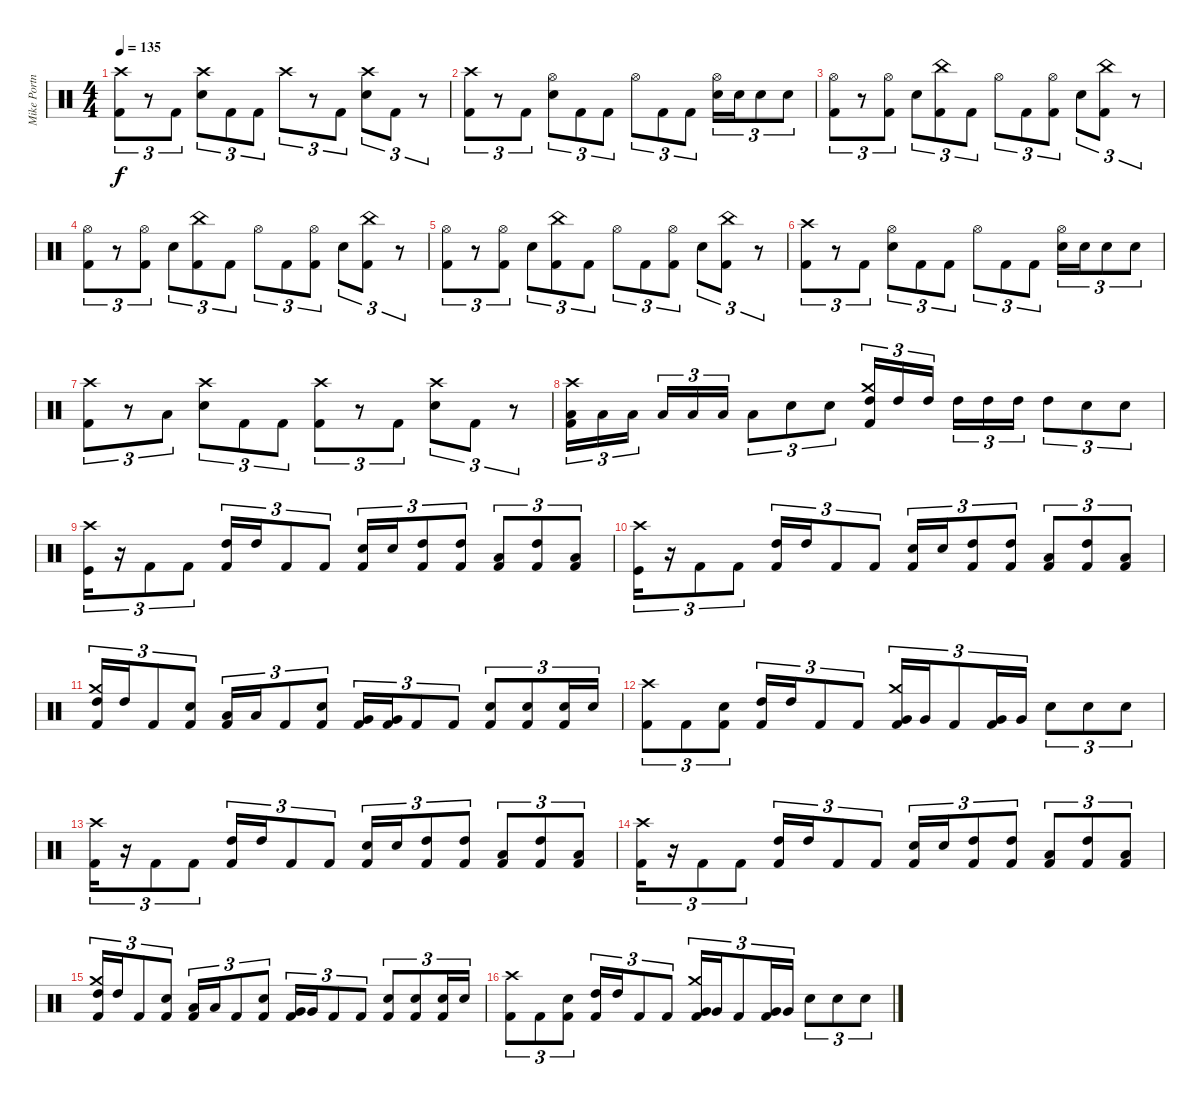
\track ("Mike Portnoy" "Mike Portn") {instrument percussion}
\staff {score}
\articulation defaults
\ts (4 4)
\tempo 135
\clef neutral
\ks c
("Crash high (hit)" "Kick (hit) 2").8{tu (3 2) dy f} r.8{tu (3 2)} "Kick (hit) 2".8{tu (3 2)} ("Crash high (hit)" "Snare (hit) 2").8{tu (3 2)} "Kick (hit) 2".8{tu (3 2)} "Kick (hit) 2".8{tu (3 2)} "Crash high (hit)".8{tu (3 2)} r.8{tu (3 2)} "Kick (hit) 2".8{tu (3 2)} ("Crash high (hit)" "Snare (hit) 2").8{tu (3 2)} "Kick (hit) 2".8{tu (3 2)} r.8{tu (3 2)} |
("Crash high (hit)" "Kick (hit) 2").8{tu (3 2)} r.8{tu (3 2)} "Kick (hit) 2".8{tu (3 2)} ("Hi-Hat (open)" "Snare (hit) 2").8{tu (3 2)} "Kick (hit) 2".8{tu (3 2)} "Kick (hit) 2".8{tu (3 2)} "Hi-Hat (open)".8{tu (3 2)} "Kick (hit) 2".8{tu (3 2)} "Kick (hit) 2".8{tu (3 2)} ("Hi-Hat (open)" "Snare (hit) 2").16{tu (3 2)} "Snare (hit) 2".16{tu (3 2)} "Snare (hit) 2".8{tu (3 2)} "Snare (hit) 2".8{tu (3 2)} |
("Hi-Hat (open)" "Kick (hit) 2").8{tu (3 2)} r.8{tu (3 2)} ("Hi-Hat (open)" "Kick (hit) 2").8{tu (3 2)} "Snare (hit) 2".8{tu (3 2)} ("China (hit)" "Kick (hit) 2").8{tu (3 2)} "Kick (hit) 2".8{tu (3 2)} "Hi-Hat (open)".8{tu (3 2)} "Kick (hit) 2".8{tu (3 2)} ("Hi-Hat (open)" "Kick (hit) 2").8{tu (3 2)} "Snare (hit) 2".8{tu (3 2)} ("China (hit)" "Kick (hit) 2").8{tu (3 2)} r.8{tu (3 2)} |
("Hi-Hat (open)" "Kick (hit) 2").8{tu (3 2)} r.8{tu (3 2)} ("Hi-Hat (open)" "Kick (hit) 2").8{tu (3 2)} "Snare (hit) 2".8{tu (3 2)} ("China (hit)" "Kick (hit) 2").8{tu (3 2)} "Kick (hit) 2".8{tu (3 2)} "Hi-Hat (open)".8{tu (3 2)} "Kick (hit) 2".8{tu (3 2)} ("Hi-Hat (open)" "Kick (hit) 2").8{tu (3 2)} "Snare (hit) 2".8{tu (3 2)} ("China (hit)" "Kick (hit) 2").8{tu (3 2)} r.8{tu (3 2)} |
("Hi-Hat (open)" "Kick (hit) 2").8{tu (3 2)} r.8{tu (3 2)} ("Hi-Hat (open)" "Kick (hit) 2").8{tu (3 2)} "Snare (hit) 2".8{tu (3 2)} ("China (hit)" "Kick (hit) 2").8{tu (3 2)} "Kick (hit) 2".8{tu (3 2)} "Hi-Hat (open)".8{tu (3 2)} "Kick (hit) 2".8{tu (3 2)} ("Hi-Hat (open)" "Kick (hit) 2").8{tu (3 2)} "Snare (hit) 2".8{tu (3 2)} ("China (hit)" "Kick (hit) 2").8{tu (3 2)} r.8{tu (3 2)} |
("Crash high (hit)" "Kick (hit) 2").8{tu (3 2)} r.8{tu (3 2)} "Kick (hit) 2".8{tu (3 2)} ("Hi-Hat (open)" "Snare (hit) 2").8{tu (3 2)} "Kick (hit) 2".8{tu (3 2)} "Kick (hit) 2".8{tu (3 2)} "Hi-Hat (open)".8{tu (3 2)} "Kick (hit) 2".8{tu (3 2)} "Kick (hit) 2".8{tu (3 2)} ("Hi-Hat (open)" "Snare (hit) 2").16{tu (3 2)} "Snare (hit) 2".16{tu (3 2)} "Snare (hit) 2".8{tu (3 2)} "Snare (hit) 2".8{tu (3 2)} |
("Crash high (hit)" "Kick (hit) 2").8{tu (3 2)} r.8{tu (3 2)} "Low Tom (hit)".8{tu (3 2)} ("Crash high (hit)" "Snare (hit) 2").8{tu (3 2)} "Kick (hit) 2".8{tu (3 2)} "Kick (hit) 2".8{tu (3 2)} ("Crash high (hit)" "Kick (hit) 2").8{tu (3 2)} r.8{tu (3 2)} "Kick (hit) 2".8{tu (3 2)} ("Crash high (hit)" "Snare (hit) 2").8{tu (3 2)} "Kick (hit) 2".8{tu (3 2)} r.8{tu (3 2)} |
("Crash high (hit)" "Low Tom (hit)" "Kick (hit) 2").16{tu (3 2)} "Low Tom (hit)".16{tu (3 2)} "Low Tom (hit)".16{tu (3 2)} "Low Tom (hit)".16{tu (3 2)} "Low Tom (hit)".16{tu (3 2)} "Low Tom (hit)".16{tu (3 2)} "Low Tom (hit)".8{tu (3 2)} "Snare (hit) 2".8{tu (3 2)} "Snare (hit) 2".8{tu (3 2)} ("Crash medium (hit)" "High Tom (hit)" "Kick (hit) 2").16{tu (3 2)} "High Tom (hit)".16{tu (3 2)} "High Tom (hit)".16{tu (3 2)} "High Tom (hit)".16{tu (3 2)} "High Tom (hit)".16{tu (3 2)} "High Tom (hit)".16{tu (3 2)} "High Tom (hit)".8{tu (3 2)} "Snare (hit) 2".8{tu (3 2)} "Snare (hit) 2".8{tu (3 2)} |
("Crash high (hit)" "Kick (hit)").16{tu (3 2)} r.16{tu (3 2)} "Kick (hit) 2".8{tu (3 2)} "Kick (hit) 2".8{tu (3 2)} ("High Tom (hit)" "Kick (hit) 2").16{tu (3 2)} "High Tom (hit)".16{tu (3 2)} "Kick (hit) 2".8{tu (3 2)} "Kick (hit) 2".8{tu (3 2)} ("Snare (hit) 2" "Kick (hit) 2").16{tu (3 2)} "Snare (hit) 2".16{tu (3 2)} ("High Tom (hit)" "Kick (hit) 2").8{tu (3 2)} ("High Tom (hit)" "Kick (hit) 2").8{tu (3 2)} ("Low Tom (hit)" "Kick (hit) 2").8{tu (3 2)} ("High Tom (hit)" "Kick (hit) 2").8{tu (3 2)} ("Low Tom (hit)" "Kick (hit) 2").8{tu (3 2)} |
("Crash high (hit)" "Kick (hit)").16{tu (3 2)} r.16{tu (3 2)} "Kick (hit) 2".8{tu (3 2)} "Kick (hit) 2".8{tu (3 2)} ("High Tom (hit)" "Kick (hit) 2").16{tu (3 2)} "High Tom (hit)".16{tu (3 2)} "Kick (hit) 2".8{tu (3 2)} "Kick (hit) 2".8{tu (3 2)} ("Snare (hit) 2" "Kick (hit) 2").16{tu (3 2)} "Snare (hit) 2".16{tu (3 2)} ("High Tom (hit)" "Kick (hit) 2").8{tu (3 2)} ("High Tom (hit)" "Kick (hit) 2").8{tu (3 2)} ("Low Tom (hit)" "Kick (hit) 2").8{tu (3 2)} ("High Tom (hit)" "Kick (hit) 2").8{tu (3 2)} ("Low Tom (hit)" "Kick (hit) 2").8{tu (3 2)} |
("Crash medium (hit)" "High Tom (hit)" "Kick (hit) 2").16{tu (3 2)} "High Tom (hit)".16{tu (3 2)} "Kick (hit) 2".8{tu (3 2)} ("Snare (hit) 2" "Kick (hit) 2").8{tu (3 2)} ("Low Tom (hit)" "Kick (hit) 2").16{tu (3 2)} "Low Tom (hit)".16{tu (3 2)} "Kick (hit) 2".8{tu (3 2)} ("Snare (hit) 2" "Kick (hit) 2").8{tu (3 2)} ("Very Low Tom (hit)" "Kick (hit) 2").16{tu (3 2)} ("Very Low Tom (hit)" "Kick (hit) 2").16{tu (3 2)} "Kick (hit) 2".8{tu (3 2)} "Kick (hit) 2".8{tu (3 2)} ("Snare (hit) 2" "Kick (hit) 2").8{tu (3 2)} ("Snare (hit) 2" "Kick (hit) 2").8{tu (3 2)} ("Snare (hit) 2" "Kick (hit) 2").16{tu (3 2)} "Snare (hit) 2".16{tu (3 2)} |
("Crash high (hit)" "Kick (hit) 2").8{tu (3 2)} "Kick (hit) 2".8{tu (3 2)} ("Snare (hit) 2" "Kick (hit) 2").8{tu (3 2)} ("High Tom (hit)" "Kick (hit) 2").16{tu (3 2)} "High Tom (hit)".16{tu (3 2)} "Kick (hit) 2".8{tu (3 2)} "Kick (hit) 2".8{tu (3 2)} ("Crash medium (hit)" "Very Low Tom (hit)" "Kick (hit) 2").16{tu (3 2)} "Very Low Tom (hit)".16{tu (3 2)} "Kick (hit) 2".8{tu (3 2)} ("Very Low Tom (hit)" "Kick (hit) 2").16{tu (3 2)} "Very Low Tom (hit)".16{tu (3 2)} "Snare (hit) 2".8{tu (3 2)} "Snare (hit) 2".8{tu (3 2)} "Snare (hit) 2".8{tu (3 2)} |
("Crash high (hit)" "Kick (hit) 2").16{tu (3 2)} r.16{tu (3 2)} "Kick (hit) 2".8{tu (3 2)} "Kick (hit) 2".8{tu (3 2)} ("High Tom (hit)" "Kick (hit) 2").16{tu (3 2)} "High Tom (hit)".16{tu (3 2)} "Kick (hit) 2".8{tu (3 2)} "Kick (hit) 2".8{tu (3 2)} ("Snare (hit) 2" "Kick (hit) 2").16{tu (3 2)} "Snare (hit) 2".16{tu (3 2)} ("High Tom (hit)" "Kick (hit) 2").8{tu (3 2)} ("High Tom (hit)" "Kick (hit) 2").8{tu (3 2)} ("Low Tom (hit)" "Kick (hit) 2").8{tu (3 2)} ("High Tom (hit)" "Kick (hit) 2").8{tu (3 2)} ("Low Tom (hit)" "Kick (hit) 2").8{tu (3 2)} |
("Crash high (hit)" "Kick (hit) 2").16{tu (3 2)} r.16{tu (3 2)} "Kick (hit) 2".8{tu (3 2)} "Kick (hit) 2".8{tu (3 2)} ("High Tom (hit)" "Kick (hit) 2").16{tu (3 2)} "High Tom (hit)".16{tu (3 2)} "Kick (hit) 2".8{tu (3 2)} "Kick (hit) 2".8{tu (3 2)} ("Snare (hit) 2" "Kick (hit) 2").16{tu (3 2)} "Snare (hit) 2".16{tu (3 2)} ("High Tom (hit)" "Kick (hit) 2").8{tu (3 2)} ("High Tom (hit)" "Kick (hit) 2").8{tu (3 2)} ("Low Tom (hit)" "Kick (hit) 2").8{tu (3 2)} ("High Tom (hit)" "Kick (hit) 2").8{tu (3 2)} ("Low Tom (hit)" "Kick (hit) 2").8{tu (3 2)} |
("Crash medium (hit)" "High Tom (hit)" "Kick (hit) 2").16{tu (3 2)} "High Tom (hit)".16{tu (3 2)} "Kick (hit) 2".8{tu (3 2)} ("Snare (hit) 2" "Kick (hit) 2").8{tu (3 2)} ("Low Tom (hit)" "Kick (hit) 2").16{tu (3 2)} "Low Tom (hit)".16{tu (3 2)} "Kick (hit) 2".8{tu (3 2)} ("Snare (hit) 2" "Kick (hit) 2").8{tu (3 2)} ("Very Low Tom (hit)" "Kick (hit) 2").16{tu (3 2)} "Very Low Tom (hit)".16{tu (3 2)} "Kick (hit) 2".8{tu (3 2)} "Kick (hit) 2".8{tu (3 2)} ("Snare (hit) 2" "Kick (hit) 2").8{tu (3 2)} ("Snare (hit) 2" "Kick (hit) 2").8{tu (3 2)} ("Snare (hit) 2" "Kick (hit) 2").16{tu (3 2)} "Snare (hit) 2".16{tu (3 2)} |
("Crash high (hit)" "Kick (hit) 2").8{tu (3 2)} "Kick (hit) 2".8{tu (3 2)} ("Snare (hit) 2" "Kick (hit) 2").8{tu (3 2)} ("High Tom (hit)" "Kick (hit) 2").16{tu (3 2)} "High Tom (hit)".16{tu (3 2)} "Kick (hit) 2".8{tu (3 2)} "Kick (hit) 2".8{tu (3 2)} ("Crash medium (hit)" "Very Low Tom (hit)" "Kick (hit) 2").16{tu (3 2)} "Very Low Tom (hit)".16{tu (3 2)} "Kick (hit) 2".8{tu (3 2)} ("Very Low Tom (hit)" "Kick (hit) 2").16{tu (3 2)} "Very Low Tom (hit)".16{tu (3 2)} "Snare (hit) 2".8{tu (3 2)} "Snare (hit) 2".8{tu (3 2)} "Snare (hit) 2".8{tu (3 2)}
